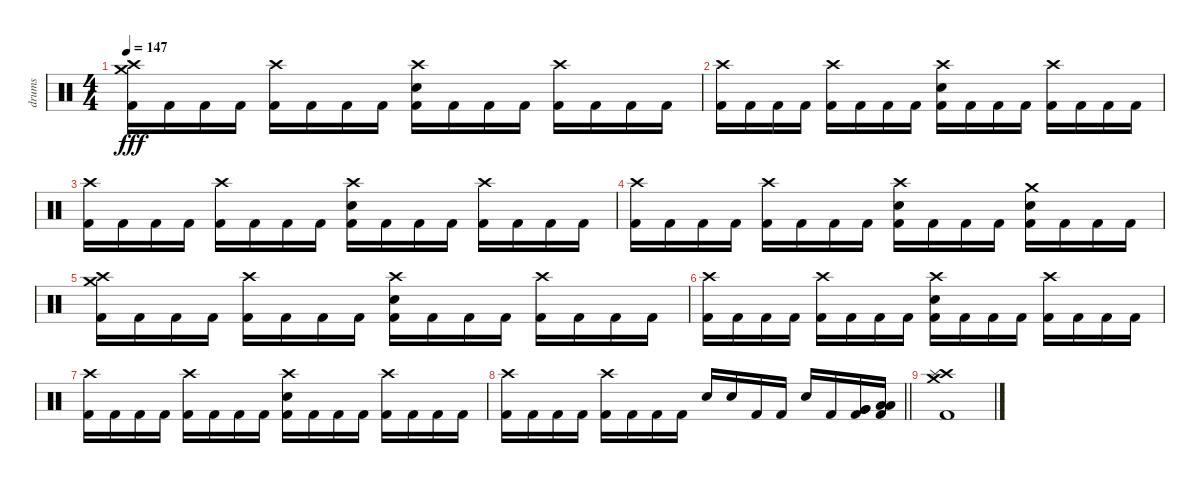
\track ("drums" "drums") {instrument percussion}
\staff {score}
\articulation defaults
\ts (4 4)
\section ("" "")
\tempo 147
\clef neutral
\ks c
("Crash high (hit)" "Crash medium (hit)" "Kick (hit) 2").16{dy fff} "Kick (hit) 2".16 "Kick (hit) 2".16 "Kick (hit) 2".16 ("Crash high (hit)" "Kick (hit) 2").16 "Kick (hit) 2".16 "Kick (hit) 2".16 "Kick (hit) 2".16 ("Crash high (hit)" "Electric Snare (hit)" "Kick (hit) 2").16 "Kick (hit) 2".16 "Kick (hit) 2".16 "Kick (hit) 2".16 ("Crash high (hit)" "Kick (hit) 2").16 "Kick (hit) 2".16 "Kick (hit) 2".16 "Kick (hit) 2".16 |
("Crash high (hit)" "Kick (hit) 2").16 "Kick (hit) 2".16 "Kick (hit) 2".16 "Kick (hit) 2".16 ("Crash high (hit)" "Kick (hit) 2").16 "Kick (hit) 2".16 "Kick (hit) 2".16 "Kick (hit) 2".16 ("Crash high (hit)" "Electric Snare (hit)" "Kick (hit) 2").16 "Kick (hit) 2".16 "Kick (hit) 2".16 "Kick (hit) 2".16 ("Crash high (hit)" "Kick (hit) 2").16 "Kick (hit) 2".16 "Kick (hit) 2".16 "Kick (hit) 2".16 |
("Crash high (hit)" "Kick (hit) 2").16 "Kick (hit) 2".16 "Kick (hit) 2".16 "Kick (hit) 2".16 ("Crash high (hit)" "Kick (hit) 2").16 "Kick (hit) 2".16 "Kick (hit) 2".16 "Kick (hit) 2".16 ("Crash high (hit)" "Electric Snare (hit)" "Kick (hit) 2").16 "Kick (hit) 2".16 "Kick (hit) 2".16 "Kick (hit) 2".16 ("Crash high (hit)" "Kick (hit) 2").16 "Kick (hit) 2".16 "Kick (hit) 2".16 "Kick (hit) 2".16 |
("Crash high (hit)" "Kick (hit) 2").16 "Kick (hit) 2".16 "Kick (hit) 2".16 "Kick (hit) 2".16 ("Crash high (hit)" "Kick (hit) 2").16 "Kick (hit) 2".16 "Kick (hit) 2".16 "Kick (hit) 2".16 ("Crash high (hit)" "Electric Snare (hit)" "Kick (hit) 2").16 "Kick (hit) 2".16 "Kick (hit) 2".16 "Kick (hit) 2".16 ("Crash medium (hit)" "Electric Snare (hit)" "Kick (hit) 2").16 "Kick (hit) 2".16 "Kick (hit) 2".16 "Kick (hit) 2".16 |
("Crash high (hit)" "Crash medium (hit)" "Kick (hit) 2").16 "Kick (hit) 2".16 "Kick (hit) 2".16 "Kick (hit) 2".16 ("Crash high (hit)" "Kick (hit) 2").16 "Kick (hit) 2".16 "Kick (hit) 2".16 "Kick (hit) 2".16 ("Crash high (hit)" "Electric Snare (hit)" "Kick (hit) 2").16 "Kick (hit) 2".16 "Kick (hit) 2".16 "Kick (hit) 2".16 ("Crash high (hit)" "Kick (hit) 2").16 "Kick (hit) 2".16 "Kick (hit) 2".16 "Kick (hit) 2".16 |
("Crash high (hit)" "Kick (hit) 2").16 "Kick (hit) 2".16 "Kick (hit) 2".16 "Kick (hit) 2".16 ("Crash high (hit)" "Kick (hit) 2").16 "Kick (hit) 2".16 "Kick (hit) 2".16 "Kick (hit) 2".16 ("Crash high (hit)" "Electric Snare (hit)" "Kick (hit) 2").16 "Kick (hit) 2".16 "Kick (hit) 2".16 "Kick (hit) 2".16 ("Crash high (hit)" "Kick (hit) 2").16 "Kick (hit) 2".16 "Kick (hit) 2".16 "Kick (hit) 2".16 |
("Crash high (hit)" "Kick (hit) 2").16 "Kick (hit) 2".16 "Kick (hit) 2".16 "Kick (hit) 2".16 ("Crash high (hit)" "Kick (hit) 2").16 "Kick (hit) 2".16 "Kick (hit) 2".16 "Kick (hit) 2".16 ("Crash high (hit)" "Electric Snare (hit)" "Kick (hit) 2").16 "Kick (hit) 2".16 "Kick (hit) 2".16 "Kick (hit) 2".16 ("Crash high (hit)" "Kick (hit) 2").16 "Kick (hit) 2".16 "Kick (hit) 2".16 "Kick (hit) 2".16 |
\barLineRight lightlight
("Crash high (hit)" "Kick (hit) 2").16 "Kick (hit) 2".16 "Kick (hit) 2".16 "Kick (hit) 2".16 ("Crash high (hit)" "Kick (hit) 2").16 "Kick (hit) 2".16 "Kick (hit) 2".16 "Kick (hit) 2".16 "Electric Snare (hit)".16 "Electric Snare (hit)".16 "Kick (hit) 2".16 "Kick (hit) 2".16 "Electric Snare (hit)".16 "Kick (hit) 2".16 ("Very Low Tom (hit)" "Very Low Tom (hit)" "Kick (hit) 2").16 ("Low Floor Tom (hit)" "Low Floor Tom (hit)" "Kick (hit) 2").16 |
\section ("" "")
("Crash high (hit)" "Crash medium (hit)" "Splash (hit)" "Kick (hit) 2").1
